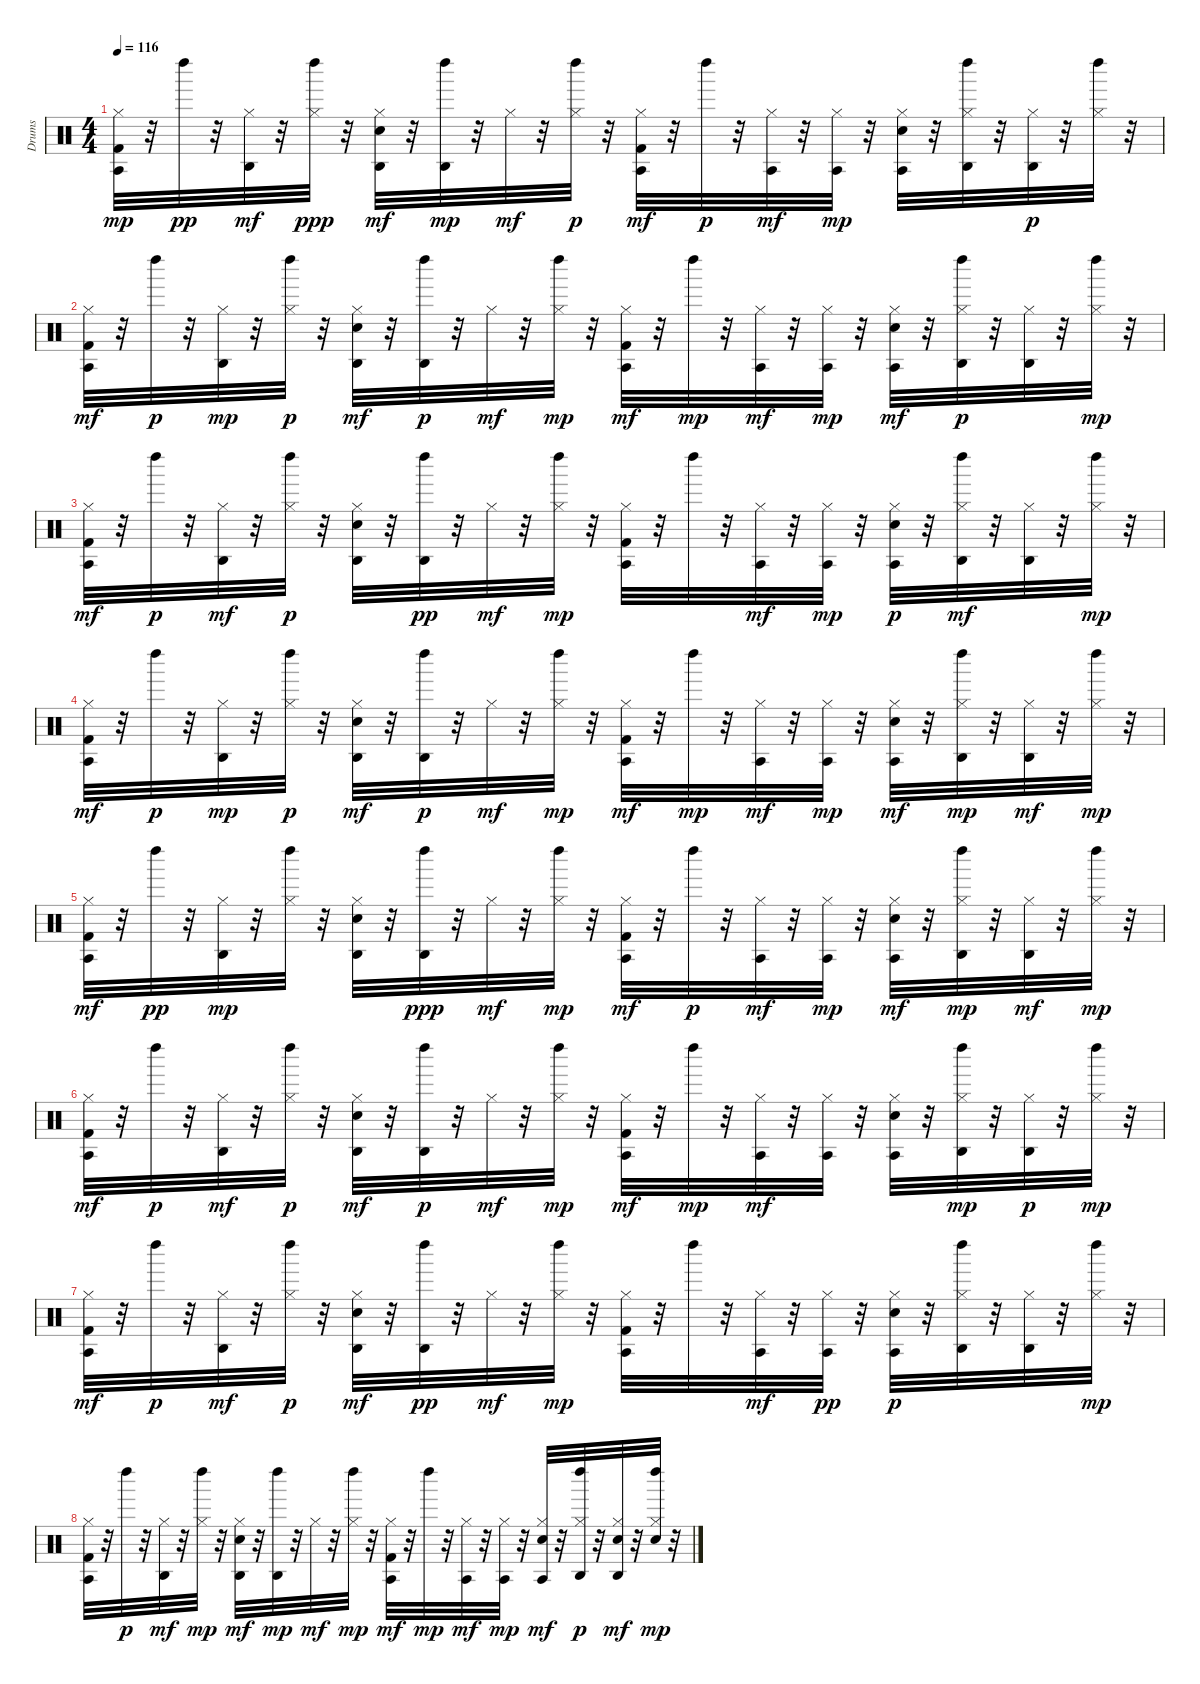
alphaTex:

\track ("Drums" "Drums") {instrument percussion}
\staff {score}
\articulation defaults
\ts (4 4)
\tempo 116
\clef neutral
\ks c
("Hi-Hat (closed)" "Kick (hit) 2" "Agogo tow (hit)").32{dy mp} r.32 "Left Maraca (hit)".32{dy pp} r.32 ("Agogo high (hit)" "Hi-Hat (closed)").32{dy mf} r.32 ("Hi-Hat (closed)" "Left Maraca (hit)").32{dy ppp} r.32 ("Agogo high (hit)" "Snare (hit) 2" "Hi-Hat (closed)").32{dy mf} r.32 ("Left Maraca (hit)" "Agogo high (hit)").32{dy mp} r.32 "Hi-Hat (closed)".32{dy mf} r.32 ("Hi-Hat (closed)" "Left Maraca (hit)").32{dy p} r.32 ("Kick (hit) 2" "Hi-Hat (closed)" "Agogo tow (hit)").32{dy mf} r.32 "Left Maraca (hit)".32{dy p} r.32 ("Agogo tow (hit)" "Hi-Hat (closed)").32{dy mf} r.32 ("Agogo tow (hit)" "Hi-Hat (closed)").32{dy mp} r.32 ("Hi-Hat (closed)" "Snare (hit) 2" "Agogo tow (hit)").32 r.32 ("Agogo high (hit)" "Left Maraca (hit)" "Hi-Hat (closed)").32 r.32 ("Hi-Hat (closed)" "Agogo high (hit)").32{dy p} r.32 ("Hi-Hat (closed)" "Left Maraca (hit)").32 r.32 |
("Agogo tow (hit)" "Kick (hit) 2" "Hi-Hat (closed)").32{dy mf} r.32 "Left Maraca (hit)".32{dy p} r.32 ("Hi-Hat (closed)" "Agogo high (hit)").32{dy mp} r.32 ("Hi-Hat (closed)" "Left Maraca (hit)").32{dy p} r.32 ("Agogo high (hit)" "Snare (hit) 2" "Hi-Hat (closed)").32{dy mf} r.32 ("Agogo high (hit)" "Left Maraca (hit)").32{dy p} r.32 "Hi-Hat (closed)".32{dy mf} r.32 ("Left Maraca (hit)" "Hi-Hat (closed)").32{dy mp} r.32 ("Kick (hit) 2" "Hi-Hat (closed)" "Agogo tow (hit)").32{dy mf} r.32 "Left Maraca (hit)".32{dy mp} r.32 ("Agogo tow (hit)" "Hi-Hat (closed)").32{dy mf} r.32 ("Agogo tow (hit)" "Hi-Hat (closed)").32{dy mp} r.32 ("Agogo tow (hit)" "Snare (hit) 2" "Hi-Hat (closed)").32{dy mf} r.32 ("Agogo high (hit)" "Hi-Hat (closed)" "Left Maraca (hit)").32{dy p} r.32 ("Hi-Hat (closed)" "Agogo high (hit)").32 r.32 ("Hi-Hat (closed)" "Left Maraca (hit)").32{dy mp} r.32 |
("Kick (hit) 2" "Agogo tow (hit)" "Hi-Hat (closed)").32{dy mf} r.32 "Left Maraca (hit)".32{dy p} r.32 ("Hi-Hat (closed)" "Agogo high (hit)").32{dy mf} r.32 ("Hi-Hat (closed)" "Left Maraca (hit)").32{dy p} r.32 ("Snare (hit) 2" "Hi-Hat (closed)" "Agogo high (hit)").32 r.32 ("Agogo high (hit)" "Left Maraca (hit)").32{dy pp} r.32 "Hi-Hat (closed)".32{dy mf} r.32 ("Left Maraca (hit)" "Hi-Hat (closed)").32{dy mp} r.32 ("Hi-Hat (closed)" "Kick (hit) 2" "Agogo tow (hit)").32 r.32 "Left Maraca (hit)".32 r.32 ("Agogo tow (hit)" "Hi-Hat (closed)").32{dy mf} r.32 ("Agogo tow (hit)" "Hi-Hat (closed)").32{dy mp} r.32 ("Hi-Hat (closed)" "Agogo tow (hit)" "Snare (hit) 2").32{dy p} r.32 ("Hi-Hat (closed)" "Left Maraca (hit)" "Agogo high (hit)").32{dy mf} r.32 ("Agogo high (hit)" "Hi-Hat (closed)").32 r.32 ("Hi-Hat (closed)" "Left Maraca (hit)").32{dy mp} r.32 |
("Kick (hit) 2" "Agogo tow (hit)" "Hi-Hat (closed)").32{dy mf} r.32 "Left Maraca (hit)".32{dy p} r.32 ("Hi-Hat (closed)" "Agogo high (hit)").32{dy mp} r.32 ("Hi-Hat (closed)" "Left Maraca (hit)").32{dy p} r.32 ("Hi-Hat (closed)" "Snare (hit) 2" "Agogo high (hit)").32{dy mf} r.32 ("Agogo high (hit)" "Left Maraca (hit)").32{dy p} r.32 "Hi-Hat (closed)".32{dy mf} r.32 ("Left Maraca (hit)" "Hi-Hat (closed)").32{dy mp} r.32 ("Agogo tow (hit)" "Kick (hit) 2" "Hi-Hat (closed)").32{dy mf} r.32 "Left Maraca (hit)".32{dy mp} r.32 ("Agogo tow (hit)" "Hi-Hat (closed)").32{dy mf} r.32 ("Agogo tow (hit)" "Hi-Hat (closed)").32{dy mp} r.32 ("Snare (hit) 2" "Agogo tow (hit)" "Hi-Hat (closed)").32{dy mf} r.32 ("Agogo high (hit)" "Left Maraca (hit)" "Hi-Hat (closed)").32{dy mp} r.32 ("Agogo high (hit)" "Hi-Hat (closed)").32{dy mf} r.32 ("Left Maraca (hit)" "Hi-Hat (closed)").32{dy mp} r.32 |
("Hi-Hat (closed)" "Agogo tow (hit)" "Kick (hit) 2").32{dy mf} r.32 "Left Maraca (hit)".32{dy pp} r.32 ("Hi-Hat (closed)" "Agogo high (hit)").32{dy mp} r.32 ("Left Maraca (hit)" "Hi-Hat (closed)").32 r.32 ("Hi-Hat (closed)" "Agogo high (hit)" "Snare (hit) 2").32 r.32 ("Agogo high (hit)" "Left Maraca (hit)").32{dy ppp} r.32 "Hi-Hat (closed)".32{dy mf} r.32 ("Left Maraca (hit)" "Hi-Hat (closed)").32{dy mp} r.32 ("Hi-Hat (closed)" "Agogo tow (hit)" "Kick (hit) 2").32{dy mf} r.32 "Left Maraca (hit)".32{dy p} r.32 ("Hi-Hat (closed)" "Agogo tow (hit)").32{dy mf} r.32 ("Hi-Hat (closed)" "Agogo tow (hit)").32{dy mp} r.32 ("Agogo tow (hit)" "Hi-Hat (closed)" "Snare (hit) 2").32{dy mf} r.32 ("Hi-Hat (closed)" "Left Maraca (hit)" "Agogo high (hit)").32{dy mp} r.32 ("Agogo high (hit)" "Hi-Hat (closed)").32{dy mf} r.32 ("Left Maraca (hit)" "Hi-Hat (closed)").32{dy mp} r.32 |
("Kick (hit) 2" "Hi-Hat (closed)" "Agogo tow (hit)").32{dy mf} r.32 "Left Maraca (hit)".32{dy p} r.32 ("Agogo high (hit)" "Hi-Hat (closed)").32{dy mf} r.32 ("Hi-Hat (closed)" "Left Maraca (hit)").32{dy p} r.32 ("Snare (hit) 2" "Agogo high (hit)" "Hi-Hat (closed)").32{dy mf} r.32 ("Agogo high (hit)" "Left Maraca (hit)").32{dy p} r.32 "Hi-Hat (closed)".32{dy mf} r.32 ("Hi-Hat (closed)" "Left Maraca (hit)").32{dy mp} r.32 ("Agogo tow (hit)" "Hi-Hat (closed)" "Kick (hit) 2").32{dy mf} r.32 "Left Maraca (hit)".32{dy mp} r.32 ("Agogo tow (hit)" "Hi-Hat (closed)").32{dy mf} r.32 ("Hi-Hat (closed)" "Agogo tow (hit)").32 r.32 ("Snare (hit) 2" "Agogo tow (hit)" "Hi-Hat (closed)").32 r.32 ("Agogo high (hit)" "Left Maraca (hit)" "Hi-Hat (closed)").32{dy mp} r.32 ("Hi-Hat (closed)" "Agogo high (hit)").32{dy p} r.32 ("Hi-Hat (closed)" "Left Maraca (hit)").32{dy mp} r.32 |
("Kick (hit) 2" "Agogo tow (hit)" "Hi-Hat (closed)").32{dy mf} r.32 "Left Maraca (hit)".32{dy p} r.32 ("Agogo high (hit)" "Hi-Hat (closed)").32{dy mf} r.32 ("Hi-Hat (closed)" "Left Maraca (hit)").32{dy p} r.32 ("Agogo high (hit)" "Hi-Hat (closed)" "Snare (hit) 2").32{dy mf} r.32 ("Agogo high (hit)" "Left Maraca (hit)").32{dy pp} r.32 "Hi-Hat (closed)".32{dy mf} r.32 ("Hi-Hat (closed)" "Left Maraca (hit)").32{dy mp} r.32 ("Kick (hit) 2" "Hi-Hat (closed)" "Agogo tow (hit)").32 r.32 "Left Maraca (hit)".32 r.32 ("Agogo tow (hit)" "Hi-Hat (closed)").32{dy mf} r.32 ("Hi-Hat (closed)" "Agogo tow (hit)").32{dy pp} r.32 ("Snare (hit) 2" "Hi-Hat (closed)" "Agogo tow (hit)").32{dy p} r.32 ("Agogo high (hit)" "Hi-Hat (closed)" "Left Maraca (hit)").32 r.32 ("Hi-Hat (closed)" "Agogo high (hit)").32 r.32 ("Hi-Hat (closed)" "Left Maraca (hit)").32{dy mp} r.32 |
("Kick (hit) 2" "Hi-Hat (closed)" "Agogo tow (hit)").32 r.32 "Left Maraca (hit)".32{dy p} r.32 ("Agogo high (hit)" "Hi-Hat (closed)").32{dy mf} r.32 ("Left Maraca (hit)" "Hi-Hat (closed)").32{dy mp} r.32 ("Hi-Hat (closed)" "Agogo high (hit)" "Snare (hit) 2").32{dy mf} r.32 ("Left Maraca (hit)" "Agogo high (hit)").32{dy mp} r.32 "Hi-Hat (closed)".32{dy mf} r.32 ("Left Maraca (hit)" "Hi-Hat (closed)").32{dy mp} r.32 ("Kick (hit) 2" "Hi-Hat (closed)" "Agogo tow (hit)").32{dy mf} r.32 "Left Maraca (hit)".32{dy mp} r.32 ("Hi-Hat (closed)" "Agogo tow (hit)").32{dy mf} r.32 ("Agogo tow (hit)" "Hi-Hat (closed)").32{dy mp} r.32 ("Agogo tow (hit)" "Snare (hit) 2" "Hi-Hat (closed)").32{dy mf} r.32 ("Agogo high (hit)" "Hi-Hat (closed)" "Left Maraca (hit)").32{dy p} r.32 ("Snare (hit) 2" "Agogo high (hit)" "Hi-Hat (closed)").32{dy mf} r.32 ("Hi-Hat (closed)" "Left Maraca (hit)" "Snare (hit) 2").32{dy mp} r.32
